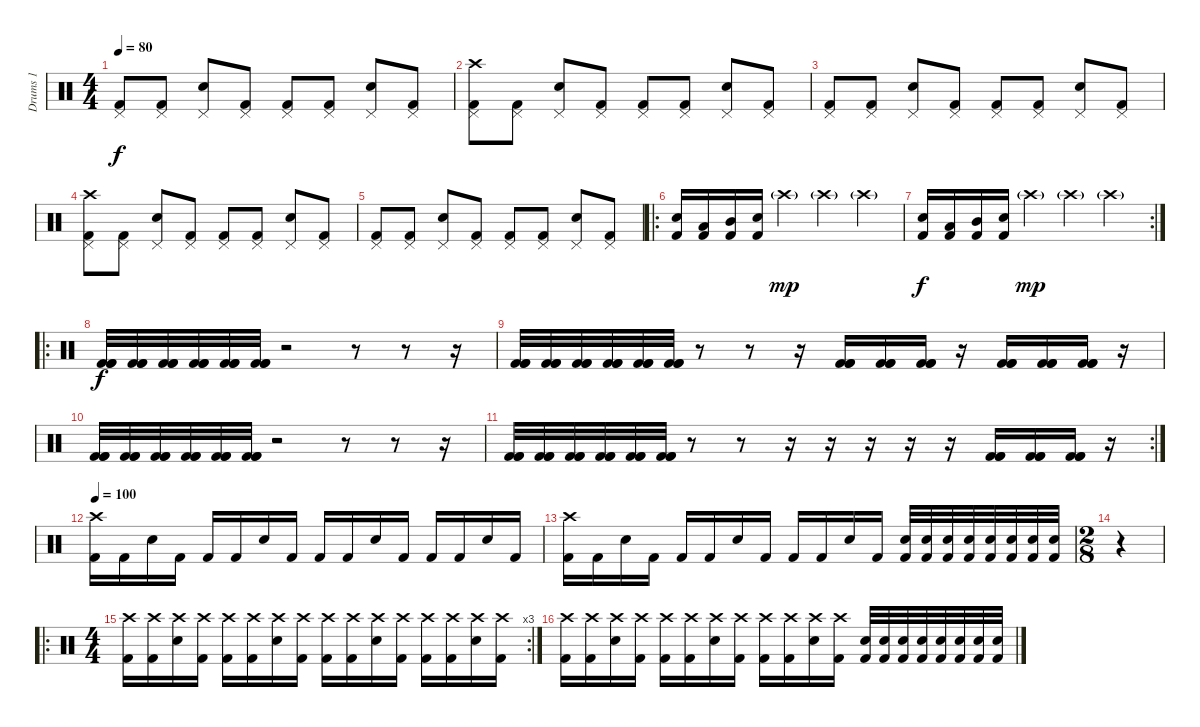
\track ("Drums 1" "Drums 1") {instrument percussion}
\staff {score}
\articulation defaults
\ts (4 4)
\tempo 80
\clef neutral
\ks c
("Pedal Hi-Hat (hit)" "Kick (hit) 2").8{dy f} ("Pedal Hi-Hat (hit)" "Kick (hit) 2").8 ("Pedal Hi-Hat (hit)" "Electric Snare (hit)").8 ("Pedal Hi-Hat (hit)" "Kick (hit) 2").8 ("Pedal Hi-Hat (hit)" "Kick (hit) 2").8 ("Pedal Hi-Hat (hit)" "Kick (hit) 2").8 ("Pedal Hi-Hat (hit)" "Electric Snare (hit)").8 ("Pedal Hi-Hat (hit)" "Kick (hit) 2").8 |
("Pedal Hi-Hat (hit)" "Crash high (hit)" "Kick (hit) 2").8 ("Pedal Hi-Hat (hit)" "Kick (hit) 2").8 ("Pedal Hi-Hat (hit)" "Electric Snare (hit)").8 ("Pedal Hi-Hat (hit)" "Kick (hit) 2").8 ("Pedal Hi-Hat (hit)" "Kick (hit) 2").8 ("Pedal Hi-Hat (hit)" "Kick (hit) 2").8 ("Pedal Hi-Hat (hit)" "Electric Snare (hit)").8 ("Pedal Hi-Hat (hit)" "Kick (hit) 2").8 |
("Pedal Hi-Hat (hit)" "Kick (hit) 2").8 ("Pedal Hi-Hat (hit)" "Kick (hit) 2").8 ("Pedal Hi-Hat (hit)" "Electric Snare (hit)").8 ("Pedal Hi-Hat (hit)" "Kick (hit) 2").8 ("Pedal Hi-Hat (hit)" "Kick (hit) 2").8 ("Pedal Hi-Hat (hit)" "Kick (hit) 2").8 ("Pedal Hi-Hat (hit)" "Electric Snare (hit)").8 ("Pedal Hi-Hat (hit)" "Kick (hit) 2").8 |
("Pedal Hi-Hat (hit)" "Crash high (hit)" "Kick (hit) 2").8 ("Pedal Hi-Hat (hit)" "Kick (hit) 2").8 ("Pedal Hi-Hat (hit)" "Electric Snare (hit)").8 ("Pedal Hi-Hat (hit)" "Kick (hit) 2").8 ("Pedal Hi-Hat (hit)" "Kick (hit) 2").8 ("Pedal Hi-Hat (hit)" "Kick (hit) 2").8 ("Pedal Hi-Hat (hit)" "Electric Snare (hit)").8 ("Pedal Hi-Hat (hit)" "Kick (hit) 2").8 |
("Pedal Hi-Hat (hit)" "Kick (hit) 2").8 ("Pedal Hi-Hat (hit)" "Kick (hit) 2").8 ("Pedal Hi-Hat (hit)" "Electric Snare (hit)").8 ("Pedal Hi-Hat (hit)" "Kick (hit) 2").8 ("Pedal Hi-Hat (hit)" "Kick (hit) 2").8 ("Pedal Hi-Hat (hit)" "Kick (hit) 2").8 ("Pedal Hi-Hat (hit)" "Electric Snare (hit)").8 ("Pedal Hi-Hat (hit)" "Kick (hit) 2").8 |
\ro
("Electric Snare (hit)" "Kick (hit) 2").16 ("Low Tom (hit)" "Kick (hit) 2").16 ("Mid Tom (hit)" "Kick (hit) 2").16 ("Electric Snare (hit)" "Kick (hit) 2").16 "Crash high (hit)"{g}.4{dy mp} "Crash high (hit)"{g}.4 "Crash high (hit)"{g}.4 |
\rc 2
("Electric Snare (hit)" "Kick (hit) 2").16{dy f} ("Low Tom (hit)" "Kick (hit) 2").16 ("Mid Tom (hit)" "Kick (hit) 2").16 ("Electric Snare (hit)" "Kick (hit) 2").16 "Crash high (hit)"{g}.4{dy mp} "Crash high (hit)"{g}.4 "Crash high (hit)"{g}.4 |
\ro
("Kick (hit) 2" "Kick (hit) 2" "Kick (hit) 2").32{dy f} ("Kick (hit) 2" "Kick (hit) 2" "Kick (hit) 2").32 ("Kick (hit) 2" "Kick (hit) 2" "Kick (hit) 2").32 ("Kick (hit) 2" "Kick (hit) 2" "Kick (hit) 2").32 ("Kick (hit) 2" "Kick (hit) 2" "Kick (hit) 2").32 ("Kick (hit) 2" "Kick (hit) 2" "Kick (hit) 2").32 r.2 r.8 r.8 r.16 |
("Kick (hit) 2" "Kick (hit) 2" "Kick (hit) 2").32 ("Kick (hit) 2" "Kick (hit) 2" "Kick (hit) 2").32 ("Kick (hit) 2" "Kick (hit) 2" "Kick (hit) 2").32 ("Kick (hit) 2" "Kick (hit) 2" "Kick (hit) 2").32 ("Kick (hit) 2" "Kick (hit) 2" "Kick (hit) 2").32 ("Kick (hit) 2" "Kick (hit) 2" "Kick (hit) 2").32 r.8 r.8 r.16 ("Kick (hit) 2" "Kick (hit) 2" "Kick (hit) 2").16 ("Kick (hit) 2" "Kick (hit) 2" "Kick (hit) 2").16 ("Kick (hit) 2" "Kick (hit) 2" "Kick (hit) 2").16 r.16 ("Kick (hit) 2" "Kick (hit) 2" "Kick (hit) 2").16 ("Kick (hit) 2" "Kick (hit) 2" "Kick (hit) 2").16 ("Kick (hit) 2" "Kick (hit) 2" "Kick (hit) 2").16 r.16 |
("Kick (hit) 2" "Kick (hit) 2" "Kick (hit) 2").32 ("Kick (hit) 2" "Kick (hit) 2" "Kick (hit) 2").32 ("Kick (hit) 2" "Kick (hit) 2" "Kick (hit) 2").32 ("Kick (hit) 2" "Kick (hit) 2" "Kick (hit) 2").32 ("Kick (hit) 2" "Kick (hit) 2" "Kick (hit) 2").32 ("Kick (hit) 2" "Kick (hit) 2" "Kick (hit) 2").32 r.2 r.8 r.8 r.16 |
\rc 2
("Kick (hit) 2" "Kick (hit) 2" "Kick (hit) 2").32 ("Kick (hit) 2" "Kick (hit) 2" "Kick (hit) 2").32 ("Kick (hit) 2" "Kick (hit) 2" "Kick (hit) 2").32 ("Kick (hit) 2" "Kick (hit) 2" "Kick (hit) 2").32 ("Kick (hit) 2" "Kick (hit) 2" "Kick (hit) 2").32 ("Kick (hit) 2" "Kick (hit) 2" "Kick (hit) 2").32 r.8 r.8 r.16 r.16 r.16 r.16 r.16 ("Kick (hit) 2" "Kick (hit) 2" "Kick (hit) 2").16 ("Kick (hit) 2" "Kick (hit) 2" "Kick (hit) 2").16 ("Kick (hit) 2" "Kick (hit) 2" "Kick (hit) 2").16 r.16 |
\tempo 100
("Crash high (hit)" "Kick (hit) 2").16 "Kick (hit) 2".16 "Electric Snare (hit)".16 "Kick (hit) 2".16 "Kick (hit) 2".16 "Kick (hit) 2".16 "Electric Snare (hit)".16 "Kick (hit) 2".16 "Kick (hit) 2".16 "Kick (hit) 2".16 "Electric Snare (hit)".16 "Kick (hit) 2".16 "Kick (hit) 2".16 "Kick (hit) 2".16 "Electric Snare (hit)".16 "Kick (hit) 2".16 |
("Crash high (hit)" "Kick (hit) 2").16 "Kick (hit) 2".16 "Electric Snare (hit)".16 "Kick (hit) 2".16 "Kick (hit) 2".16 "Kick (hit) 2".16 "Electric Snare (hit)".16 "Kick (hit) 2".16 "Kick (hit) 2".16 "Kick (hit) 2".16 "Electric Snare (hit)".16 "Kick (hit) 2".16 ("Kick (hit) 2" "Electric Snare (hit)").32 ("Kick (hit) 2" "Electric Snare (hit)").32 ("Kick (hit) 2" "Electric Snare (hit)").32 ("Kick (hit) 2" "Electric Snare (hit)").32 ("Kick (hit) 2" "Electric Snare (hit)").32 ("Kick (hit) 2" "Electric Snare (hit)").32 ("Kick (hit) 2" "Electric Snare (hit)").32 ("Kick (hit) 2" "Electric Snare (hit)").32 |
\ts (2 8)
r.4 |
\ro
\rc 3
\ts (4 4)
("Crash high (hit)" "Kick (hit) 2").16 ("Crash high (hit)" "Kick (hit) 2").16 ("Crash high (hit)" "Electric Snare (hit)").16 ("Crash high (hit)" "Kick (hit) 2").16 ("Crash high (hit)" "Kick (hit) 2").16 ("Crash high (hit)" "Kick (hit) 2").16 ("Crash high (hit)" "Electric Snare (hit)").16 ("Crash high (hit)" "Kick (hit) 2").16 ("Crash high (hit)" "Kick (hit) 2").16 ("Crash high (hit)" "Kick (hit) 2").16 ("Crash high (hit)" "Electric Snare (hit)").16 ("Crash high (hit)" "Kick (hit) 2").16 ("Crash high (hit)" "Kick (hit) 2").16 ("Crash high (hit)" "Kick (hit) 2").16 ("Crash high (hit)" "Electric Snare (hit)").16 ("Crash high (hit)" "Kick (hit) 2").16 |
("Crash high (hit)" "Kick (hit) 2").16 ("Crash high (hit)" "Kick (hit) 2").16 ("Crash high (hit)" "Electric Snare (hit)").16 ("Crash high (hit)" "Kick (hit) 2").16 ("Crash high (hit)" "Kick (hit) 2").16 ("Crash high (hit)" "Kick (hit) 2").16 ("Crash high (hit)" "Electric Snare (hit)").16 ("Crash high (hit)" "Kick (hit) 2").16 ("Crash high (hit)" "Kick (hit) 2").16 ("Crash high (hit)" "Kick (hit) 2").16 ("Crash high (hit)" "Electric Snare (hit)").16 ("Crash high (hit)" "Kick (hit) 2").16 ("Kick (hit) 2" "Electric Snare (hit)").32 ("Kick (hit) 2" "Electric Snare (hit)").32 ("Kick (hit) 2" "Electric Snare (hit)").32 ("Kick (hit) 2" "Electric Snare (hit)").32 ("Kick (hit) 2" "Electric Snare (hit)").32 ("Kick (hit) 2" "Electric Snare (hit)").32 ("Kick (hit) 2" "Electric Snare (hit)").32 ("Kick (hit) 2" "Electric Snare (hit)").32
